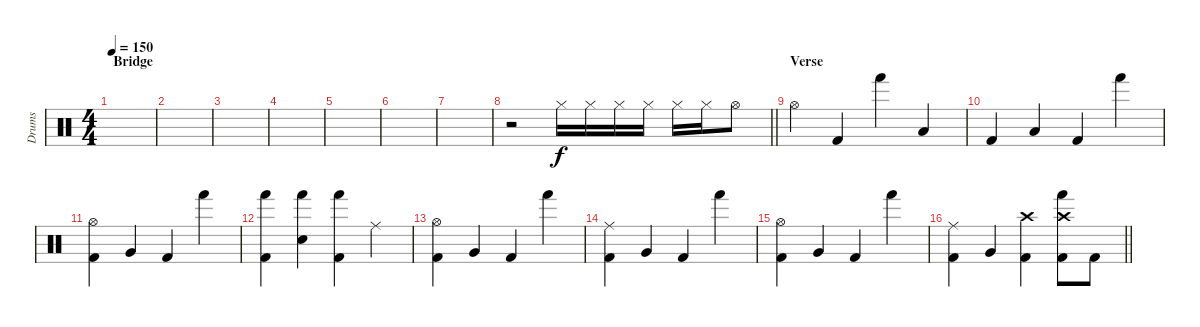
\track ("Drums" "Drums") {instrument percussion}
\staff {score}
\articulation defaults
\ts (4 4)
\section ("" "Bridge")
\tempo 150
\clef neutral
\ks c
|
|
|
|
|
|
|
\barLineRight lightlight
r.2 "Hi-Hat (closed)".16 "Hi-Hat (closed)".16 "Hi-Hat (closed)".16 "Hi-Hat (closed)".16 "Hi-Hat (closed)".16 "Hi-Hat (closed)".16 "Hi-Hat (open)".8 |
\section ("" "Verse")
"Hi-Hat (open)".4 "Kick (hit) 2".4 "Hand (hit)".4 "Low Floor Tom (hit)".4 |
"Kick (hit) 2".4 "Low Floor Tom (hit)".4 "Kick (hit) 2".4 "Hand (hit)".4 |
("Hi-Hat (open)" "Kick (hit) 2").4 "Very Low Tom (hit)".4 "Kick (hit) 2".4 "Hand (hit)".4 |
("Hand (hit)" "Kick (hit) 2").4 ("Hand (hit)" "Electric Snare (hit)").4 ("Hand (hit)" "Kick (hit) 2").4 "Ride (middle)".4 |
("Hi-Hat (open)" "Kick (hit) 2").4 "Very Low Tom (hit)".4 "Kick (hit) 2".4 "Hand (hit)".4 |
("Ride (middle)" "Kick (hit) 2").4 "Very Low Tom (hit)".4 "Kick (hit) 2".4 "Hand (hit)".4 |
("Hi-Hat (open)" "Kick (hit) 2").4 "Very Low Tom (hit)".4 "Kick (hit) 2".4 "Hand (hit)".4 |
\barLineRight lightlight
("Ride (middle)" "Kick (hit) 2").4 "Very Low Tom (hit)".4 ("Crash high (hit)" "Kick (hit) 2").4 ("Crash high (hit)" "Hand (hit)" "Kick (hit) 2").8 "Kick (hit) 2".8
